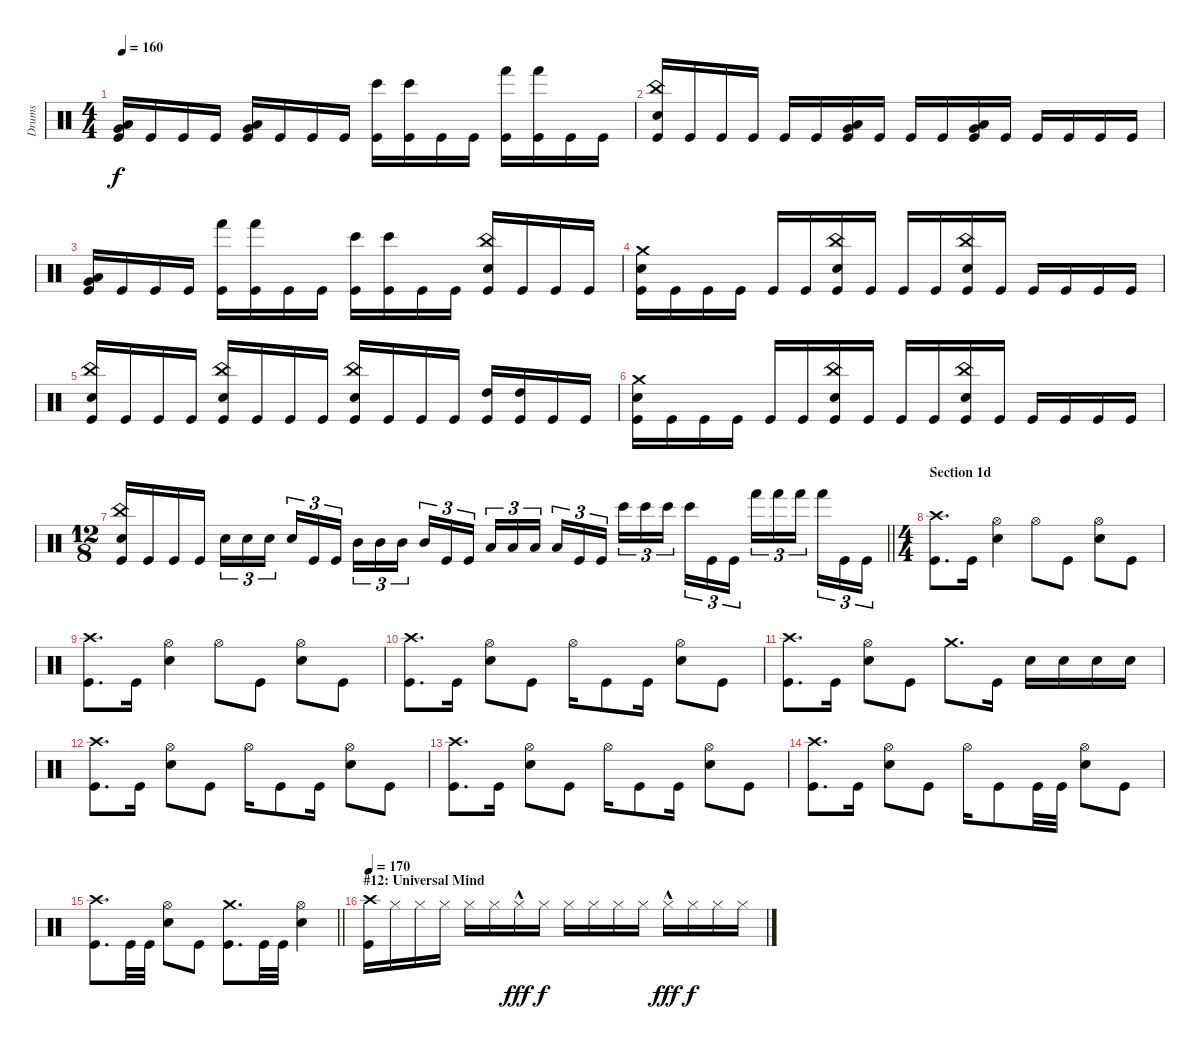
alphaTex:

\track ("Drums" "Drums") {instrument percussion}
\staff {score}
\articulation defaults
\ts (4 4)
\tempo 160
\clef neutral
\ks c
("Very Low Tom (hit)" "Low Floor Tom (hit)" "Kick (hit)").16{dy f} "Kick (hit)".16 "Kick (hit)".16 "Kick (hit)".16 ("Very Low Tom (hit)" "Low Floor Tom (hit)" "Kick (hit)").16 "Kick (hit)".16 "Kick (hit)".16 "Kick (hit)".16 ("Bongo High (hit)" "Kick (hit)").16 ("Bongo High (hit)" "Kick (hit)").16 "Kick (hit)".16 "Kick (hit)".16 ("Hand (hit)" "Kick (hit)").16 ("Hand (hit)" "Kick (hit)").16 "Kick (hit)".16 "Kick (hit)".16 |
("China (hit)" "Snare (hit) 2" "Kick (hit)").16 "Kick (hit)".16 "Kick (hit)".16 "Kick (hit)".16 "Kick (hit)".16 "Kick (hit)".16 ("Very Low Tom (hit)" "Low Floor Tom (hit)" "Kick (hit)").16 "Kick (hit)".16 "Kick (hit)".16 "Kick (hit)".16 ("Very Low Tom (hit)" "Low Floor Tom (hit)" "Kick (hit)").16 "Kick (hit)".16 "Kick (hit)".16 "Kick (hit)".16 "Kick (hit)".16 "Kick (hit)".16 |
("Very Low Tom (hit)" "Low Floor Tom (hit)" "Kick (hit)").16 "Kick (hit)".16 "Kick (hit)".16 "Kick (hit)".16 ("Hand (hit)" "Kick (hit)").16 ("Hand (hit)" "Kick (hit)").16 "Kick (hit)".16 "Kick (hit)".16 ("Bongo High (hit)" "Kick (hit)").16 ("Bongo High (hit)" "Kick (hit)").16 "Kick (hit)".16 "Kick (hit)".16 ("China (hit)" "Snare (hit) 2" "Kick (hit)").16 "Kick (hit)".16 "Kick (hit)".16 "Kick (hit)".16 |
("Crash medium (hit)" "Snare (hit) 2" "Kick (hit)").16 "Kick (hit)".16 "Kick (hit)".16 "Kick (hit)".16 "Kick (hit)".16 "Kick (hit)".16 ("China (hit)" "Snare (hit) 2" "Kick (hit)").16 "Kick (hit)".16 "Kick (hit)".16 "Kick (hit)".16 ("China (hit)" "Snare (hit) 2" "Kick (hit)").16 "Kick (hit)".16 "Kick (hit)".16 "Kick (hit)".16 "Kick (hit)".16 "Kick (hit)".16 |
("China (hit)" "Snare (hit) 2" "Kick (hit)").16 "Kick (hit)".16 "Kick (hit)".16 "Kick (hit)".16 ("China (hit)" "Snare (hit) 2" "Kick (hit)").16 "Kick (hit)".16 "Kick (hit)".16 "Kick (hit)".16 ("China (hit)" "Snare (hit) 2" "Kick (hit)").16 "Kick (hit)".16 "Kick (hit)".16 "Kick (hit)".16 ("High Tom (hit)" "Kick (hit)").16 ("High Tom (hit)" "Kick (hit)").16 "Kick (hit)".16 "Kick (hit)".16 |
("Crash medium (hit)" "Snare (hit) 2" "Kick (hit)").16 "Kick (hit)".16 "Kick (hit)".16 "Kick (hit)".16 "Kick (hit)".16 "Kick (hit)".16 ("China (hit)" "Snare (hit) 2" "Kick (hit)").16 "Kick (hit)".16 "Kick (hit)".16 "Kick (hit)".16 ("China (hit)" "Snare (hit) 2" "Kick (hit)").16 "Kick (hit)".16 "Kick (hit)".16 "Kick (hit)".16 "Kick (hit)".16 "Kick (hit)".16 |
\ts (12 8)
\barLineRight lightlight
("China (hit)" "Snare (hit) 2" "Kick (hit)").16 "Kick (hit)".16 "Kick (hit)".16 "Kick (hit)".16{beam splitsecondary} "Snare (hit) 2".16{tu (3 2)} "Snare (hit) 2".16{tu (3 2)} "Snare (hit) 2".16{tu (3 2)} "Snare (hit) 2".16{tu (3 2)} "Kick (hit)".16{tu (3 2)} "Kick (hit)".16{tu (3 2) beam splitsecondary} "Mid Tom (hit)".16{tu (3 2)} "Mid Tom (hit)".16{tu (3 2)} "Mid Tom (hit)".16{tu (3 2) beam splitsecondary} "Mid Tom (hit)".16{tu (3 2)} "Kick (hit)".16{tu (3 2)} "Kick (hit)".16{tu (3 2)} "Low Tom (hit)".16{tu (3 2)} "Low Tom (hit)".16{tu (3 2)} "Low Tom (hit)".16{tu (3 2) beam splitsecondary} "Low Tom (hit)".16{tu (3 2)} "Kick (hit)".16{tu (3 2)} "Kick (hit)".16{tu (3 2) beam splitsecondary} "Bongo High (hit)".16{tu (3 2)} "Bongo High (hit)".16{tu (3 2)} "Bongo High (hit)".16{tu (3 2)} "Bongo High (hit)".16{tu (3 2)} "Kick (hit)".16{tu (3 2)} "Kick (hit)".16{tu (3 2) beam splitsecondary} "Hand (hit)".16{tu (3 2)} "Hand (hit)".16{tu (3 2)} "Hand (hit)".16{tu (3 2) beam splitsecondary} "Hand (hit)".16{tu (3 2)} "Kick (hit)".16{tu (3 2)} "Kick (hit)".16{tu (3 2)} |
\ts (4 4)
\section ("" "Section 1d")
("Crash high (hit)" "Kick (hit)").8{d} "Kick (hit)".16 ("Hi-Hat (open)" "Snare (hit) 2").4 "Hi-Hat (open)".8 "Kick (hit)".8 ("Hi-Hat (open)" "Snare (hit) 2").8 "Kick (hit)".8 |
("Crash high (hit)" "Kick (hit)").8{d} "Kick (hit)".16 ("Hi-Hat (open)" "Snare (hit) 2").4 "Hi-Hat (open)".8 "Kick (hit)".8 ("Hi-Hat (open)" "Snare (hit) 2").8 "Kick (hit)".8 |
("Crash high (hit)" "Kick (hit)").8{d} "Kick (hit)".16 ("Hi-Hat (open)" "Snare (hit) 2").8 "Kick (hit)".8 "Hi-Hat (open)".16 "Kick (hit)".8 "Kick (hit)".16 ("Hi-Hat (open)" "Snare (hit) 2").8 "Kick (hit)".8 |
("Crash high (hit)" "Kick (hit)").8{d} "Kick (hit)".16 ("Hi-Hat (open)" "Snare (hit) 2").8 "Kick (hit)".8 "Crash medium (hit)".8{d} "Kick (hit)".16 "Snare (hit) 2".16 "Snare (hit) 2".16 "Snare (hit) 2".16 "Snare (hit) 2".16 |
("Crash high (hit)" "Kick (hit)").8{d} "Kick (hit)".16 ("Hi-Hat (open)" "Snare (hit) 2").8 "Kick (hit)".8 "Hi-Hat (open)".16 "Kick (hit)".8 "Kick (hit)".16 ("Hi-Hat (open)" "Snare (hit) 2").8 "Kick (hit)".8 |
("Crash high (hit)" "Kick (hit)").8{d} "Kick (hit)".16 ("Hi-Hat (open)" "Snare (hit) 2").8 "Kick (hit)".8 "Hi-Hat (open)".16 "Kick (hit)".8 "Kick (hit)".16 ("Hi-Hat (open)" "Snare (hit) 2").8 "Kick (hit)".8 |
("Crash high (hit)" "Kick (hit)").8{d} "Kick (hit)".16 ("Hi-Hat (open)" "Snare (hit) 2").8 "Kick (hit)".8 "Hi-Hat (open)".16 "Kick (hit)".8 "Kick (hit)".32 "Kick (hit)".32 ("Hi-Hat (open)" "Snare (hit) 2").8 "Kick (hit)".8 |
\barLineRight lightlight
("Crash high (hit)" "Kick (hit)").8{d} "Kick (hit)".32 "Kick (hit)".32 ("Hi-Hat (open)" "Snare (hit) 2").8 "Kick (hit)".8 ("Crash medium (hit)" "Kick (hit)").8{d} "Kick (hit)".32 "Kick (hit)".32 ("Hi-Hat (open)" "Snare (hit) 2").4 |
\section ("" "#12: Universal Mind")
\tempo 170
("Crash high (hit)" "Kick (hit)").16 "Hi-Hat (closed)".16 "Hi-Hat (closed)".16 "Hi-Hat (closed)".16 "Hi-Hat (closed)".16 "Hi-Hat (closed)".16 "Hi-Hat (closed)"{hac}.16{dy fff} "Hi-Hat (closed)".16{dy f} "Hi-Hat (closed)".16 "Hi-Hat (closed)".16 "Hi-Hat (closed)".16 "Hi-Hat (closed)".16 "Hi-Hat (closed)"{hac}.16{dy fff} "Hi-Hat (closed)".16{dy f} "Hi-Hat (closed)".16 "Hi-Hat (closed)".16
